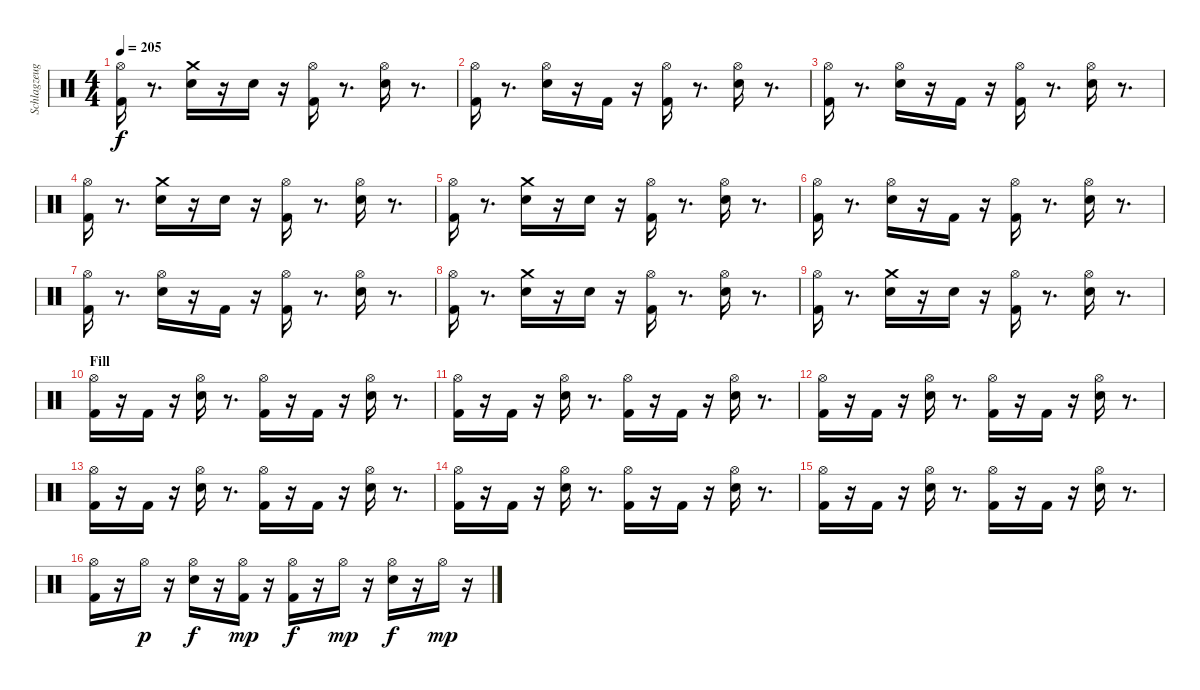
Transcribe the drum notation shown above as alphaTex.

\track ("Schlagzeug - Bela B." "Schlagzeug") {instrument percussion}
\staff {score}
\articulation defaults
\ts (4 4)
\tempo 205
\clef neutral
\ks c
("Kick (hit) 2" "Hi-Hat (open)").16{dy f} r.8{d} ("Electric Snare (hit)" "Crash medium (hit)").16 r.16 "Electric Snare (hit)".16 r.16 ("Kick (hit) 2" "Hi-Hat (open)").16 r.8{d} ("Electric Snare (hit)" "Hi-Hat (open)").16 r.8{d} |
("Kick (hit) 2" "Hi-Hat (open)").16 r.8{d} ("Electric Snare (hit)" "Hi-Hat (open)").16 r.16 "Kick (hit) 2".16 r.16 ("Kick (hit) 2" "Hi-Hat (open)").16 r.8{d} ("Electric Snare (hit)" "Hi-Hat (open)").16 r.8{d} |
("Kick (hit) 2" "Hi-Hat (open)").16 r.8{d} ("Electric Snare (hit)" "Hi-Hat (open)").16 r.16 "Kick (hit) 2".16 r.16 ("Kick (hit) 2" "Hi-Hat (open)").16 r.8{d} ("Electric Snare (hit)" "Hi-Hat (open)").16 r.8{d} |
("Kick (hit) 2" "Hi-Hat (open)").16 r.8{d} ("Electric Snare (hit)" "Crash medium (hit)").16 r.16 "Electric Snare (hit)".16 r.16 ("Kick (hit) 2" "Hi-Hat (open)").16 r.8{d} ("Electric Snare (hit)" "Hi-Hat (open)").16 r.8{d} |
("Kick (hit) 2" "Hi-Hat (open)").16 r.8{d} ("Electric Snare (hit)" "Crash medium (hit)").16 r.16 "Electric Snare (hit)".16 r.16 ("Kick (hit) 2" "Hi-Hat (open)").16 r.8{d} ("Electric Snare (hit)" "Hi-Hat (open)").16 r.8{d} |
("Kick (hit) 2" "Hi-Hat (open)").16 r.8{d} ("Electric Snare (hit)" "Hi-Hat (open)").16 r.16 "Kick (hit) 2".16 r.16 ("Kick (hit) 2" "Hi-Hat (open)").16 r.8{d} ("Electric Snare (hit)" "Hi-Hat (open)").16 r.8{d} |
("Kick (hit) 2" "Hi-Hat (open)").16 r.8{d} ("Electric Snare (hit)" "Hi-Hat (open)").16 r.16 "Kick (hit) 2".16 r.16 ("Kick (hit) 2" "Hi-Hat (open)").16 r.8{d} ("Electric Snare (hit)" "Hi-Hat (open)").16 r.8{d} |
("Kick (hit) 2" "Hi-Hat (open)").16 r.8{d} ("Electric Snare (hit)" "Crash medium (hit)").16 r.16 "Electric Snare (hit)".16 r.16 ("Kick (hit) 2" "Hi-Hat (open)").16 r.8{d} ("Electric Snare (hit)" "Hi-Hat (open)").16 r.8{d} |
("Kick (hit) 2" "Hi-Hat (open)").16 r.8{d} ("Electric Snare (hit)" "Crash medium (hit)").16 r.16 "Electric Snare (hit)".16 r.16 ("Kick (hit) 2" "Hi-Hat (open)").16 r.8{d} ("Electric Snare (hit)" "Hi-Hat (open)").16 r.8{d} |
\section ("" "Fill")
("Kick (hit) 2" "Hi-Hat (open)").16 r.16 "Kick (hit) 2".16 r.16 ("Electric Snare (hit)" "Hi-Hat (open)").16 r.8{d} ("Kick (hit) 2" "Hi-Hat (open)").16 r.16 "Kick (hit) 2".16 r.16 ("Electric Snare (hit)" "Hi-Hat (open)").16 r.8{d} |
("Kick (hit) 2" "Hi-Hat (open)").16 r.16 "Kick (hit) 2".16 r.16 ("Electric Snare (hit)" "Hi-Hat (open)").16 r.8{d} ("Kick (hit) 2" "Hi-Hat (open)").16 r.16 "Kick (hit) 2".16 r.16 ("Electric Snare (hit)" "Hi-Hat (open)").16 r.8{d} |
("Kick (hit) 2" "Hi-Hat (open)").16 r.16 "Kick (hit) 2".16 r.16 ("Electric Snare (hit)" "Hi-Hat (open)").16 r.8{d} ("Kick (hit) 2" "Hi-Hat (open)").16 r.16 "Kick (hit) 2".16 r.16 ("Electric Snare (hit)" "Hi-Hat (open)").16 r.8{d} |
("Kick (hit) 2" "Hi-Hat (open)").16 r.16 "Kick (hit) 2".16 r.16 ("Electric Snare (hit)" "Hi-Hat (open)").16 r.8{d} ("Kick (hit) 2" "Hi-Hat (open)").16 r.16 "Kick (hit) 2".16 r.16 ("Electric Snare (hit)" "Hi-Hat (open)").16 r.8{d} |
("Kick (hit) 2" "Hi-Hat (open)").16 r.16 "Kick (hit) 2".16 r.16 ("Electric Snare (hit)" "Hi-Hat (open)").16 r.8{d} ("Kick (hit) 2" "Hi-Hat (open)").16 r.16 "Kick (hit) 2".16 r.16 ("Electric Snare (hit)" "Hi-Hat (open)").16 r.8{d} |
("Kick (hit) 2" "Hi-Hat (open)").16 r.16 "Kick (hit) 2".16 r.16 ("Electric Snare (hit)" "Hi-Hat (open)").16 r.8{d} ("Kick (hit) 2" "Hi-Hat (open)").16 r.16 "Kick (hit) 2".16 r.16 ("Electric Snare (hit)" "Hi-Hat (open)").16 r.8{d} |
("Kick (hit) 2" "Hi-Hat (open)").16 r.16 "Hi-Hat (open)".16{dy p} r.16 ("Electric Snare (hit)" "Hi-Hat (open)").16{dy f} r.16 ("Kick (hit) 2" "Hi-Hat (open)").16{dy mp} r.16 ("Kick (hit) 2" "Hi-Hat (open)").16{dy f} r.16 "Hi-Hat (open)".16{dy mp} r.16 ("Electric Snare (hit)" "Hi-Hat (open)").16{dy f} r.16 "Hi-Hat (open)".16{dy mp} r.16
